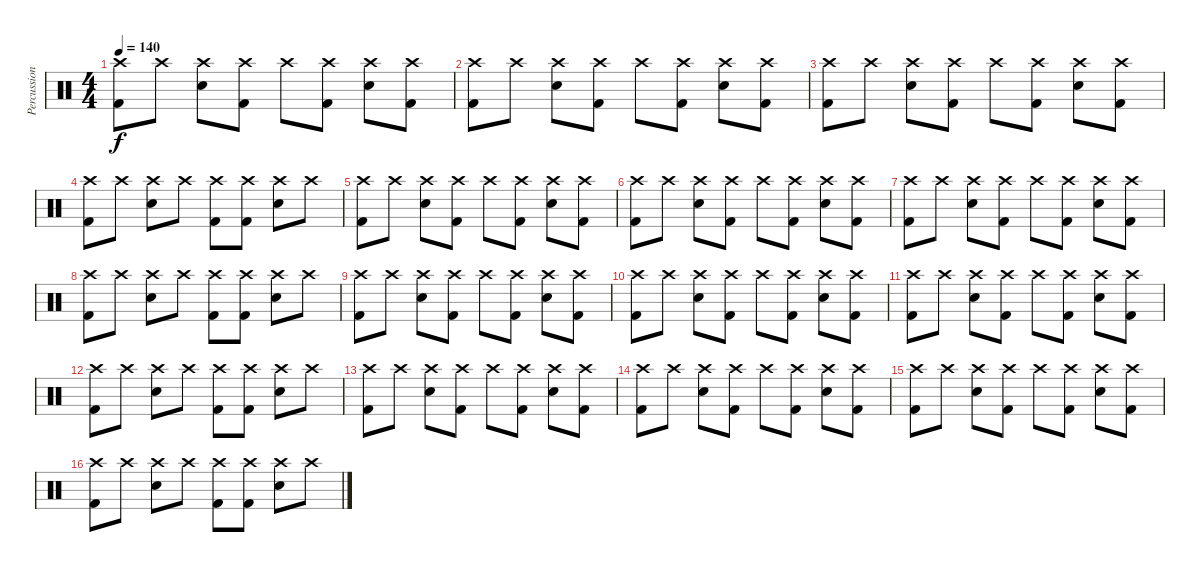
\track ("Percussion" "Percussion") {instrument percussion}
\staff {score}
\articulation defaults
\ts (4 4)
\tempo 140
\clef neutral
\ks c
("Crash high (hit)" "Kick (hit) 2").8{dy f} "Crash high (hit)".8 ("Crash high (hit)" "Electric Snare (hit)").8 ("Crash high (hit)" "Kick (hit) 2").8 "Crash high (hit)".8 ("Crash high (hit)" "Kick (hit) 2").8 ("Crash high (hit)" "Electric Snare (hit)").8 ("Crash high (hit)" "Kick (hit) 2").8 |
("Crash high (hit)" "Kick (hit) 2").8 "Crash high (hit)".8 ("Crash high (hit)" "Electric Snare (hit)").8 ("Crash high (hit)" "Kick (hit) 2").8 "Crash high (hit)".8 ("Crash high (hit)" "Kick (hit) 2").8 ("Crash high (hit)" "Electric Snare (hit)").8 ("Crash high (hit)" "Kick (hit) 2").8 |
("Crash high (hit)" "Kick (hit) 2").8 "Crash high (hit)".8 ("Crash high (hit)" "Electric Snare (hit)").8 ("Crash high (hit)" "Kick (hit) 2").8 "Crash high (hit)".8 ("Crash high (hit)" "Kick (hit) 2").8 ("Crash high (hit)" "Electric Snare (hit)").8 ("Crash high (hit)" "Kick (hit) 2").8 |
("Crash high (hit)" "Kick (hit) 2").8 "Crash high (hit)".8 ("Crash high (hit)" "Electric Snare (hit)").8 "Crash high (hit)".8 ("Crash high (hit)" "Kick (hit) 2").8 ("Crash high (hit)" "Kick (hit) 2").8 ("Crash high (hit)" "Electric Snare (hit)").8 "Crash high (hit)".8 |
("Crash high (hit)" "Kick (hit) 2").8 "Crash high (hit)".8 ("Crash high (hit)" "Electric Snare (hit)").8 ("Crash high (hit)" "Kick (hit) 2").8 "Crash high (hit)".8 ("Crash high (hit)" "Kick (hit) 2").8 ("Crash high (hit)" "Electric Snare (hit)").8 ("Crash high (hit)" "Kick (hit) 2").8 |
("Crash high (hit)" "Kick (hit) 2").8 "Crash high (hit)".8 ("Crash high (hit)" "Electric Snare (hit)").8 ("Crash high (hit)" "Kick (hit) 2").8 "Crash high (hit)".8 ("Crash high (hit)" "Kick (hit) 2").8 ("Crash high (hit)" "Electric Snare (hit)").8 ("Crash high (hit)" "Kick (hit) 2").8 |
("Crash high (hit)" "Kick (hit) 2").8 "Crash high (hit)".8 ("Crash high (hit)" "Electric Snare (hit)").8 ("Crash high (hit)" "Kick (hit) 2").8 "Crash high (hit)".8 ("Crash high (hit)" "Kick (hit) 2").8 ("Crash high (hit)" "Electric Snare (hit)").8 ("Crash high (hit)" "Kick (hit) 2").8 |
("Crash high (hit)" "Kick (hit) 2").8 "Crash high (hit)".8 ("Crash high (hit)" "Electric Snare (hit)").8 "Crash high (hit)".8 ("Crash high (hit)" "Kick (hit) 2").8 ("Crash high (hit)" "Kick (hit) 2").8 ("Crash high (hit)" "Electric Snare (hit)").8 "Crash high (hit)".8 |
("Crash high (hit)" "Kick (hit) 2").8 "Crash high (hit)".8 ("Crash high (hit)" "Electric Snare (hit)").8 ("Crash high (hit)" "Kick (hit) 2").8 "Crash high (hit)".8 ("Crash high (hit)" "Kick (hit) 2").8 ("Crash high (hit)" "Electric Snare (hit)").8 ("Crash high (hit)" "Kick (hit) 2").8 |
("Crash high (hit)" "Kick (hit) 2").8 "Crash high (hit)".8 ("Crash high (hit)" "Electric Snare (hit)").8 ("Crash high (hit)" "Kick (hit) 2").8 "Crash high (hit)".8 ("Crash high (hit)" "Kick (hit) 2").8 ("Crash high (hit)" "Electric Snare (hit)").8 ("Crash high (hit)" "Kick (hit) 2").8 |
("Crash high (hit)" "Kick (hit) 2").8 "Crash high (hit)".8 ("Crash high (hit)" "Electric Snare (hit)").8 ("Crash high (hit)" "Kick (hit) 2").8 "Crash high (hit)".8 ("Crash high (hit)" "Kick (hit) 2").8 ("Crash high (hit)" "Electric Snare (hit)").8 ("Crash high (hit)" "Kick (hit) 2").8 |
("Crash high (hit)" "Kick (hit) 2").8 "Crash high (hit)".8 ("Crash high (hit)" "Electric Snare (hit)").8 "Crash high (hit)".8 ("Crash high (hit)" "Kick (hit) 2").8 ("Crash high (hit)" "Kick (hit) 2").8 ("Crash high (hit)" "Electric Snare (hit)").8 "Crash high (hit)".8 |
("Crash high (hit)" "Kick (hit) 2").8 "Crash high (hit)".8 ("Crash high (hit)" "Electric Snare (hit)").8 ("Crash high (hit)" "Kick (hit) 2").8 "Crash high (hit)".8 ("Crash high (hit)" "Kick (hit) 2").8 ("Crash high (hit)" "Electric Snare (hit)").8 ("Crash high (hit)" "Kick (hit) 2").8 |
("Crash high (hit)" "Kick (hit) 2").8 "Crash high (hit)".8 ("Crash high (hit)" "Electric Snare (hit)").8 ("Crash high (hit)" "Kick (hit) 2").8 "Crash high (hit)".8 ("Crash high (hit)" "Kick (hit) 2").8 ("Crash high (hit)" "Electric Snare (hit)").8 ("Crash high (hit)" "Kick (hit) 2").8 |
("Crash high (hit)" "Kick (hit) 2").8 "Crash high (hit)".8 ("Crash high (hit)" "Electric Snare (hit)").8 ("Crash high (hit)" "Kick (hit) 2").8 "Crash high (hit)".8 ("Crash high (hit)" "Kick (hit) 2").8 ("Crash high (hit)" "Electric Snare (hit)").8 ("Crash high (hit)" "Kick (hit) 2").8 |
("Crash high (hit)" "Kick (hit) 2").8 "Crash high (hit)".8 ("Crash high (hit)" "Electric Snare (hit)").8 "Crash high (hit)".8 ("Crash high (hit)" "Kick (hit) 2").8 ("Crash high (hit)" "Kick (hit) 2").8 ("Crash high (hit)" "Electric Snare (hit)").8 "Crash high (hit)".8
